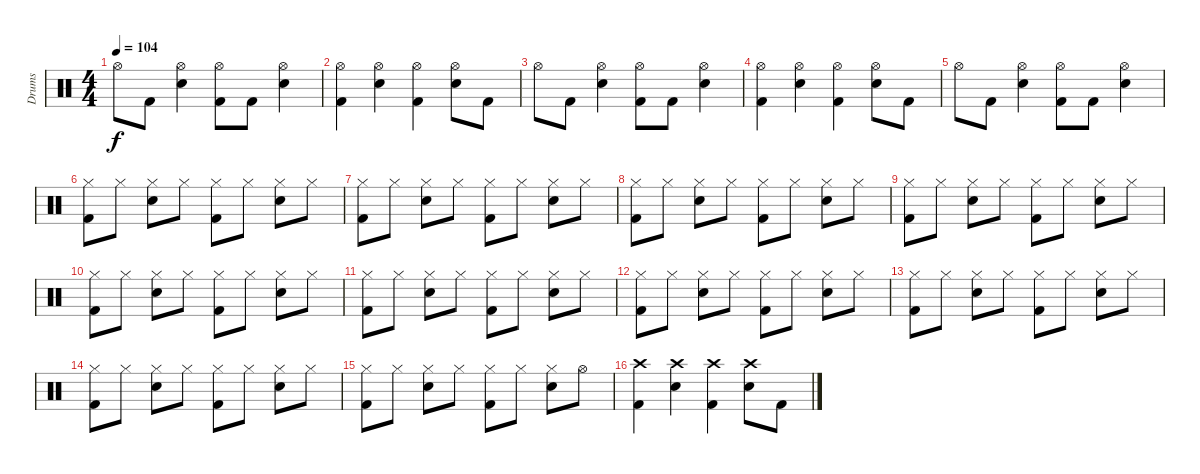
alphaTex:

\track ("Drums" "Drums") {instrument percussion}
\staff {score}
\articulation defaults
\ts (4 4)
\tempo 104
\clef neutral
\ks c "Hi-Hat (open)".8{dy f} "Kick (hit) 2".8
("Hi-Hat (open)" "Electric Snare (hit)").4 ("Hi-Hat (open)" "Kick (hit) 2").8 "Kick (hit) 2".8 ("Hi-Hat (open)" "Electric Snare (hit)").4 |
("Hi-Hat (open)" "Kick (hit) 2").4 ("Hi-Hat (open)" "Electric Snare (hit)").4 ("Hi-Hat (open)" "Kick (hit) 2").4 ("Hi-Hat (open)" "Electric Snare (hit)").8 "Kick (hit) 2".8 |
"Hi-Hat (open)".8 "Kick (hit) 2".8 ("Hi-Hat (open)" "Electric Snare (hit)").4 ("Hi-Hat (open)" "Kick (hit) 2").8 "Kick (hit) 2".8 ("Hi-Hat (open)" "Electric Snare (hit)").4 |
("Hi-Hat (open)" "Kick (hit) 2").4 ("Hi-Hat (open)" "Electric Snare (hit)").4 ("Hi-Hat (open)" "Kick (hit) 2").4 ("Hi-Hat (open)" "Electric Snare (hit)").8 "Kick (hit) 2".8 |
"Hi-Hat (open)".8 "Kick (hit) 2".8 ("Hi-Hat (open)" "Electric Snare (hit)").4 ("Hi-Hat (open)" "Kick (hit) 2").8 "Kick (hit) 2".8 ("Hi-Hat (open)" "Electric Snare (hit)").4 |
("Kick (hit) 2" "Hi-Hat (closed)").8 "Hi-Hat (closed)".8 ("Electric Snare (hit)" "Hi-Hat (closed)").8 "Hi-Hat (closed)".8 ("Kick (hit) 2" "Hi-Hat (closed)").8 "Hi-Hat (closed)".8 ("Electric Snare (hit)" "Hi-Hat (closed)").8 "Hi-Hat (closed)".8 |
("Kick (hit) 2" "Hi-Hat (closed)").8 "Hi-Hat (closed)".8 ("Electric Snare (hit)" "Hi-Hat (closed)").8 "Hi-Hat (closed)".8 ("Kick (hit) 2" "Hi-Hat (closed)").8 "Hi-Hat (closed)".8 ("Electric Snare (hit)" "Hi-Hat (closed)").8 "Hi-Hat (closed)".8 |
("Kick (hit) 2" "Hi-Hat (closed)").8 "Hi-Hat (closed)".8 ("Electric Snare (hit)" "Hi-Hat (closed)").8 "Hi-Hat (closed)".8 ("Kick (hit) 2" "Hi-Hat (closed)").8 "Hi-Hat (closed)".8 ("Electric Snare (hit)" "Hi-Hat (closed)").8 "Hi-Hat (closed)".8 |
("Kick (hit) 2" "Hi-Hat (closed)").8 "Hi-Hat (closed)".8 ("Electric Snare (hit)" "Hi-Hat (closed)").8 "Hi-Hat (closed)".8 ("Kick (hit) 2" "Hi-Hat (closed)").8 "Hi-Hat (closed)".8 ("Electric Snare (hit)" "Hi-Hat (closed)").8 "Hi-Hat (closed)".8 |
("Kick (hit) 2" "Hi-Hat (closed)").8 "Hi-Hat (closed)".8 ("Electric Snare (hit)" "Hi-Hat (closed)").8 "Hi-Hat (closed)".8 ("Kick (hit) 2" "Hi-Hat (closed)").8 "Hi-Hat (closed)".8 ("Electric Snare (hit)" "Hi-Hat (closed)").8 "Hi-Hat (closed)".8 |
("Kick (hit) 2" "Hi-Hat (closed)").8 "Hi-Hat (closed)".8 ("Electric Snare (hit)" "Hi-Hat (closed)").8 "Hi-Hat (closed)".8 ("Kick (hit) 2" "Hi-Hat (closed)").8 "Hi-Hat (closed)".8 ("Electric Snare (hit)" "Hi-Hat (closed)").8 "Hi-Hat (closed)".8 |
("Kick (hit) 2" "Hi-Hat (closed)").8 "Hi-Hat (closed)".8 ("Electric Snare (hit)" "Hi-Hat (closed)").8 "Hi-Hat (closed)".8 ("Kick (hit) 2" "Hi-Hat (closed)").8 "Hi-Hat (closed)".8 ("Electric Snare (hit)" "Hi-Hat (closed)").8 "Hi-Hat (closed)".8 |
("Kick (hit) 2" "Hi-Hat (closed)").8 "Hi-Hat (closed)".8 ("Electric Snare (hit)" "Hi-Hat (closed)").8 "Hi-Hat (closed)".8 ("Kick (hit) 2" "Hi-Hat (closed)").8 "Hi-Hat (closed)".8 ("Electric Snare (hit)" "Hi-Hat (closed)").8 "Hi-Hat (closed)".8 |
("Kick (hit) 2" "Hi-Hat (closed)").8 "Hi-Hat (closed)".8 ("Electric Snare (hit)" "Hi-Hat (closed)").8 "Hi-Hat (closed)".8 ("Kick (hit) 2" "Hi-Hat (closed)").8 "Hi-Hat (closed)".8 ("Electric Snare (hit)" "Hi-Hat (closed)").8 "Hi-Hat (closed)".8 |
("Kick (hit) 2" "Hi-Hat (closed)").8 "Hi-Hat (closed)".8 ("Electric Snare (hit)" "Hi-Hat (closed)").8 "Hi-Hat (closed)".8 ("Kick (hit) 2" "Hi-Hat (closed)").8 "Hi-Hat (closed)".8 ("Electric Snare (hit)" "Hi-Hat (closed)").8 "Hi-Hat (open)".8 |
("Crash high (hit)" "Kick (hit) 2").4 ("Crash high (hit)" "Electric Snare (hit)").4 ("Crash high (hit)" "Kick (hit) 2").4 ("Crash high (hit)" "Electric Snare (hit)").8 "Kick (hit) 2".8
